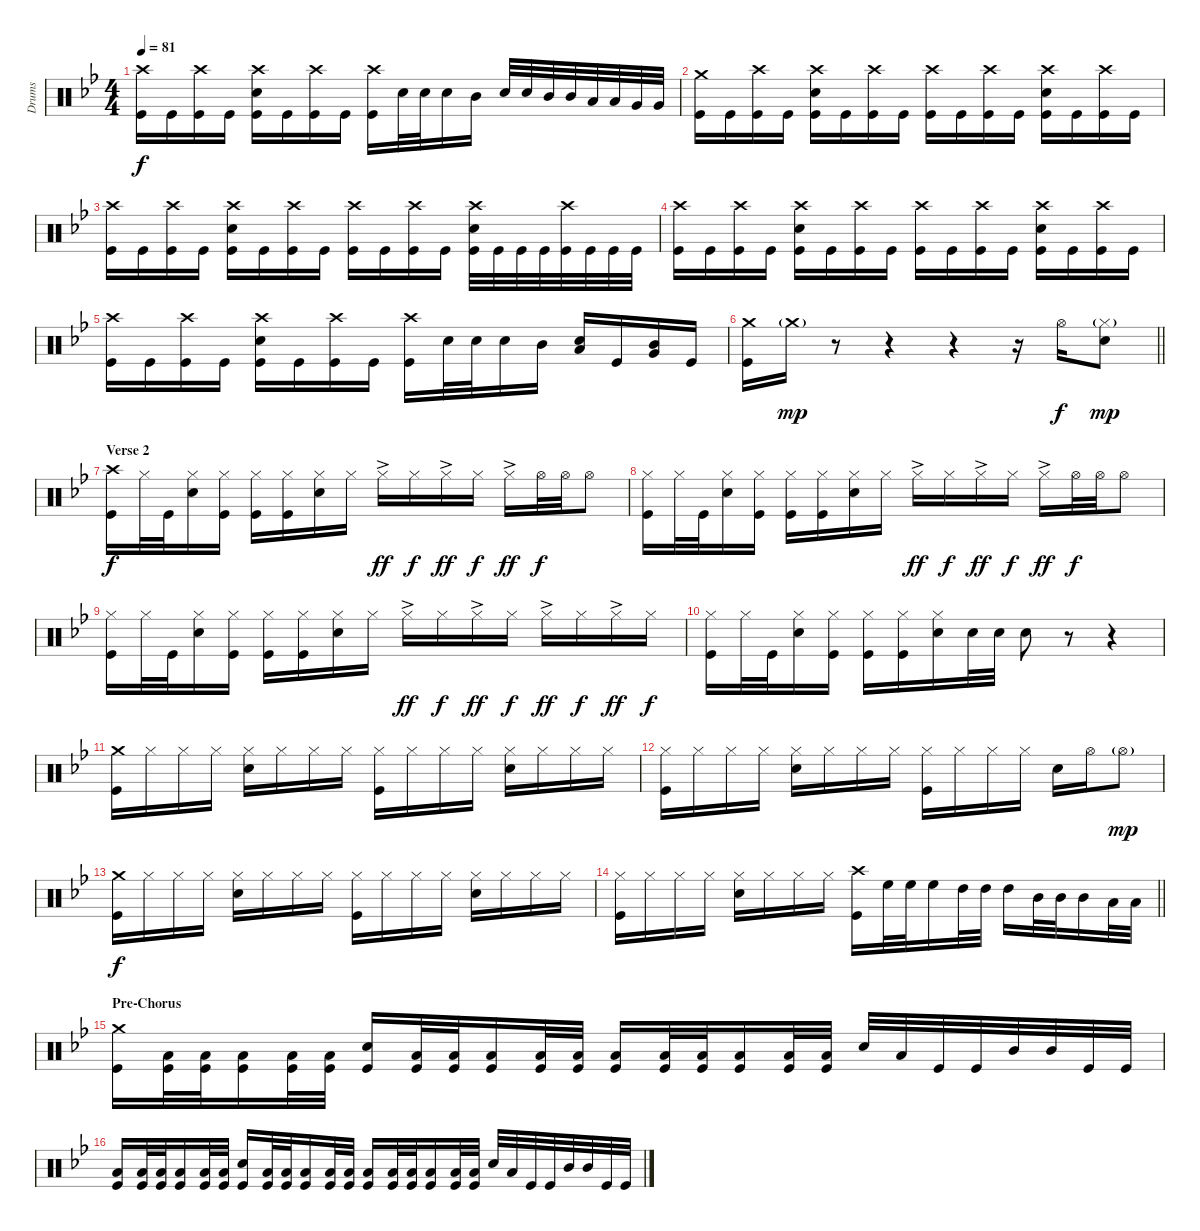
\track ("Drums" "Drums") {instrument percussion}
\staff {score}
\articulation defaults
\ts (4 4)
\tempo 81
\clef neutral
\ks gminor
("Crash high (hit)" "Kick (hit)").16{dy f} "Kick (hit)".16 ("Crash high (hit)" "Kick (hit)").16 "Kick (hit)".16 ("Crash high (hit)" "Electric Snare (hit)" "Kick (hit)").16 "Kick (hit)".16 ("Crash high (hit)" "Kick (hit)").16 "Kick (hit)".16 ("Crash high (hit)" "Kick (hit)").16 "Electric Snare (hit)".32 "Electric Snare (hit)".32 "Electric Snare (hit)".16 "Mid Tom (hit)".16 "Electric Snare (hit)".32 "Electric Snare (hit)".32 "Mid Tom (hit)".32 "Mid Tom (hit)".32 "Low Tom (hit)".32 "Low Tom (hit)".32 "Very Low Tom (hit)".32 "Very Low Tom (hit)".32 |
("Crash medium (hit)" "Kick (hit)").16 "Kick (hit)".16 ("Crash high (hit)" "Kick (hit)").16 "Kick (hit)".16 ("Crash high (hit)" "Electric Snare (hit)" "Kick (hit)").16 "Kick (hit)".16 ("Crash high (hit)" "Kick (hit)").16 "Kick (hit)".16 ("Crash high (hit)" "Kick (hit)").16 "Kick (hit)".16 ("Crash high (hit)" "Kick (hit)").16 "Kick (hit)".16 ("Crash high (hit)" "Electric Snare (hit)" "Kick (hit)").16 "Kick (hit)".16 ("Crash high (hit)" "Kick (hit)").16 "Kick (hit)".16 |
("Crash high (hit)" "Kick (hit)").16 "Kick (hit)".16 ("Crash high (hit)" "Kick (hit)").16 "Kick (hit)".16 ("Crash high (hit)" "Electric Snare (hit)" "Kick (hit)").16 "Kick (hit)".16 ("Crash high (hit)" "Kick (hit)").16 "Kick (hit)".16 ("Crash high (hit)" "Kick (hit)").16 "Kick (hit)".16 ("Crash high (hit)" "Kick (hit)").16 "Kick (hit)".16 ("Crash high (hit)" "Electric Snare (hit)" "Kick (hit)").32 "Kick (hit)".32 "Kick (hit)".32 "Kick (hit)".32 ("Crash high (hit)" "Kick (hit)").32 "Kick (hit)".32 "Kick (hit)".32 "Kick (hit)".32 |
("Crash high (hit)" "Kick (hit)").16 "Kick (hit)".16 ("Crash high (hit)" "Kick (hit)").16 "Kick (hit)".16 ("Crash high (hit)" "Electric Snare (hit)" "Kick (hit)").16 "Kick (hit)".16 ("Crash high (hit)" "Kick (hit)").16 "Kick (hit)".16 ("Crash high (hit)" "Kick (hit)").16 "Kick (hit)".16 ("Crash high (hit)" "Kick (hit)").16 "Kick (hit)".16 ("Crash high (hit)" "Electric Snare (hit)" "Kick (hit)").16 "Kick (hit)".16 ("Crash high (hit)" "Kick (hit)").16 "Kick (hit)".16 |
("Crash high (hit)" "Kick (hit)").16 "Kick (hit)".16 ("Crash high (hit)" "Kick (hit)").16 "Kick (hit)".16 ("Crash high (hit)" "Electric Snare (hit)" "Kick (hit)").16 "Kick (hit)".16 ("Crash high (hit)" "Kick (hit)").16 "Kick (hit)".16 ("Crash high (hit)" "Kick (hit)").16 "Electric Snare (hit)".32 "Electric Snare (hit)".32 "Electric Snare (hit)".16 "Mid Tom (hit)".16 ("Low Tom (hit)" "Electric Snare (hit)").16 "Kick (hit)".16 ("Mid Tom (hit)" "Very Low Tom (hit)").16 "Kick (hit)".16 |
\barLineRight lightlight
("Crash medium (hit)" "Kick (hit)").16 "Crash medium (hit)"{g}.16{dy mp} r.8 r.4 r.4 r.16 "Hi-Hat (open)".16{dy f} ("Hi-Hat (closed)"{g} "Electric Snare (hit)").8{dy mp} |
\section ("" "Verse 2")
("Crash high (hit)" "Kick (hit)").16{dy f} "Hi-Hat (closed)".32 "Kick (hit)".32 ("Hi-Hat (closed)" "Electric Snare (hit)").16 ("Hi-Hat (closed)" "Kick (hit)").16 ("Hi-Hat (closed)" "Kick (hit)").16 ("Hi-Hat (closed)" "Kick (hit)").16 ("Hi-Hat (closed)" "Electric Snare (hit)").16 "Hi-Hat (closed)".16 "Hi-Hat (closed)"{ac}.16{dy ff} "Hi-Hat (closed)".16{dy f} "Hi-Hat (closed)"{ac}.16{dy ff} "Hi-Hat (closed)".16{dy f} "Hi-Hat (closed)"{ac}.16{dy ff} "Hi-Hat (open)".32{dy f} "Hi-Hat (open)".32 "Hi-Hat (open)".8 |
("Hi-Hat (closed)" "Kick (hit)").16 "Hi-Hat (closed)".32 "Kick (hit)".32 ("Hi-Hat (closed)" "Electric Snare (hit)").16 ("Hi-Hat (closed)" "Kick (hit)").16 ("Hi-Hat (closed)" "Kick (hit)").16 ("Hi-Hat (closed)" "Kick (hit)").16 ("Hi-Hat (closed)" "Electric Snare (hit)").16 "Hi-Hat (closed)".16 "Hi-Hat (closed)"{ac}.16{dy ff} "Hi-Hat (closed)".16{dy f} "Hi-Hat (closed)"{ac}.16{dy ff} "Hi-Hat (closed)".16{dy f} "Hi-Hat (closed)"{ac}.16{dy ff} "Hi-Hat (open)".32{dy f} "Hi-Hat (open)".32 "Hi-Hat (open)".8 |
("Hi-Hat (closed)" "Kick (hit)").16 "Hi-Hat (closed)".32 "Kick (hit)".32 ("Hi-Hat (closed)" "Electric Snare (hit)").16 ("Hi-Hat (closed)" "Kick (hit)").16 ("Hi-Hat (closed)" "Kick (hit)").16 ("Hi-Hat (closed)" "Kick (hit)").16 ("Hi-Hat (closed)" "Electric Snare (hit)").16 "Hi-Hat (closed)".16 "Hi-Hat (closed)"{ac}.16{dy ff} "Hi-Hat (closed)".16{dy f} "Hi-Hat (closed)"{ac}.16{dy ff} "Hi-Hat (closed)".16{dy f} "Hi-Hat (closed)"{ac}.16{dy ff} "Hi-Hat (closed)".16{dy f} "Hi-Hat (closed)"{ac}.16{dy ff} "Hi-Hat (closed)".16{dy f} |
("Hi-Hat (closed)" "Kick (hit)").16 "Hi-Hat (closed)".32 "Kick (hit)".32 ("Hi-Hat (closed)" "Electric Snare (hit)").16 ("Hi-Hat (closed)" "Kick (hit)").16 ("Hi-Hat (closed)" "Kick (hit)").16 ("Hi-Hat (closed)" "Kick (hit)").16 ("Hi-Hat (closed)" "Electric Snare (hit)").16 "Electric Snare (hit)".32 "Electric Snare (hit)".32 "Electric Snare (hit)".8 r.8 r.4 |
("Crash medium (hit)" "Kick (hit)").16 "Hi-Hat (closed)".16 "Hi-Hat (closed)".16 "Hi-Hat (closed)".16 ("Hi-Hat (closed)" "Electric Snare (hit)").16 "Hi-Hat (closed)".16 "Hi-Hat (closed)".16 "Hi-Hat (closed)".16 ("Hi-Hat (closed)" "Kick (hit)").16 "Hi-Hat (closed)".16 "Hi-Hat (closed)".16 "Hi-Hat (closed)".16 ("Hi-Hat (closed)" "Electric Snare (hit)").16 "Hi-Hat (closed)".16 "Hi-Hat (closed)".16 "Hi-Hat (closed)".16 |
("Hi-Hat (closed)" "Kick (hit)").16 "Hi-Hat (closed)".16 "Hi-Hat (closed)".16 "Hi-Hat (closed)".16 ("Hi-Hat (closed)" "Electric Snare (hit)").16 "Hi-Hat (closed)".16 "Hi-Hat (closed)".16 "Hi-Hat (closed)".16 ("Hi-Hat (closed)" "Kick (hit)").16 "Hi-Hat (closed)".16 "Hi-Hat (closed)".16 "Hi-Hat (closed)".16 "Electric Snare (hit)".16 "Hi-Hat (open)".16 "Hi-Hat (open)"{g}.8{dy mp} |
("Crash medium (hit)" "Kick (hit)").16{dy f} "Hi-Hat (closed)".16 "Hi-Hat (closed)".16 "Hi-Hat (closed)".16 ("Hi-Hat (closed)" "Electric Snare (hit)").16 "Hi-Hat (closed)".16 "Hi-Hat (closed)".16 "Hi-Hat (closed)".16 ("Hi-Hat (closed)" "Kick (hit)").16 "Hi-Hat (closed)".16 "Hi-Hat (closed)".16 "Hi-Hat (closed)".16 ("Hi-Hat (closed)" "Electric Snare (hit)").16 "Hi-Hat (closed)".16 "Hi-Hat (closed)".16 "Hi-Hat (closed)".16 |
\barLineRight lightlight
("Hi-Hat (closed)" "Kick (hit)").16 "Hi-Hat (closed)".16 "Hi-Hat (closed)".16 "Hi-Hat (closed)".16 ("Hi-Hat (closed)" "Electric Snare (hit)").16 "Hi-Hat (closed)".16 "Hi-Hat (closed)".16 "Hi-Hat (closed)".16 ("Crash high (hit)" "Kick (hit)").16 "High Floor Tom (hit)".32 "High Floor Tom (hit)".32 "High Floor Tom (hit)".16 "High Tom (hit)".32 "High Tom (hit)".32 "High Tom (hit)".16 "Mid Tom (hit)".32 "Mid Tom (hit)".32 "Mid Tom (hit)".16 "Low Tom (hit)".32 "Low Tom (hit)".32 |
\section ("" "Pre-Chorus")
("Crash medium (hit)" "Kick (hit)").16 ("Low Tom (hit)" "Kick (hit)").32 ("Low Tom (hit)" "Kick (hit)").32 ("Low Tom (hit)" "Kick (hit)").16 ("Low Tom (hit)" "Kick (hit)").32 ("Low Tom (hit)" "Kick (hit)").32 ("Electric Snare (hit)" "Kick (hit)").16 ("Low Tom (hit)" "Kick (hit)").32 ("Low Tom (hit)" "Kick (hit)").32 ("Low Tom (hit)" "Kick (hit)").16 ("Low Tom (hit)" "Kick (hit)").32 ("Low Tom (hit)" "Kick (hit)").32 ("Low Tom (hit)" "Kick (hit)").16 ("Low Tom (hit)" "Kick (hit)").32 ("Low Tom (hit)" "Kick (hit)").32 ("Low Tom (hit)" "Kick (hit)").16 ("Low Tom (hit)" "Kick (hit)").32 ("Low Tom (hit)" "Kick (hit)").32 "Electric Snare (hit)".32 "Low Tom (hit)".32 "Kick (hit)".32 "Kick (hit)".32 "Mid Tom (hit)".32 "Mid Tom (hit)".32 "Kick (hit)".32 "Kick (hit)".32 |
("Low Tom (hit)" "Kick (hit)").16 ("Low Tom (hit)" "Kick (hit)").32 ("Low Tom (hit)" "Kick (hit)").32 ("Low Tom (hit)" "Kick (hit)").16 ("Low Tom (hit)" "Kick (hit)").32 ("Low Tom (hit)" "Kick (hit)").32 ("Electric Snare (hit)" "Kick (hit)").16 ("Low Tom (hit)" "Kick (hit)").32 ("Low Tom (hit)" "Kick (hit)").32 ("Low Tom (hit)" "Kick (hit)").16 ("Low Tom (hit)" "Kick (hit)").32 ("Low Tom (hit)" "Kick (hit)").32 ("Low Tom (hit)" "Kick (hit)").16 ("Low Tom (hit)" "Kick (hit)").32 ("Low Tom (hit)" "Kick (hit)").32 ("Low Tom (hit)" "Kick (hit)").16 ("Low Tom (hit)" "Kick (hit)").32 ("Low Tom (hit)" "Kick (hit)").32 "Electric Snare (hit)".32 "Low Tom (hit)".32 "Kick (hit)".32 "Kick (hit)".32 "Mid Tom (hit)".32 "Mid Tom (hit)".32 "Kick (hit)".32 "Kick (hit)".32
